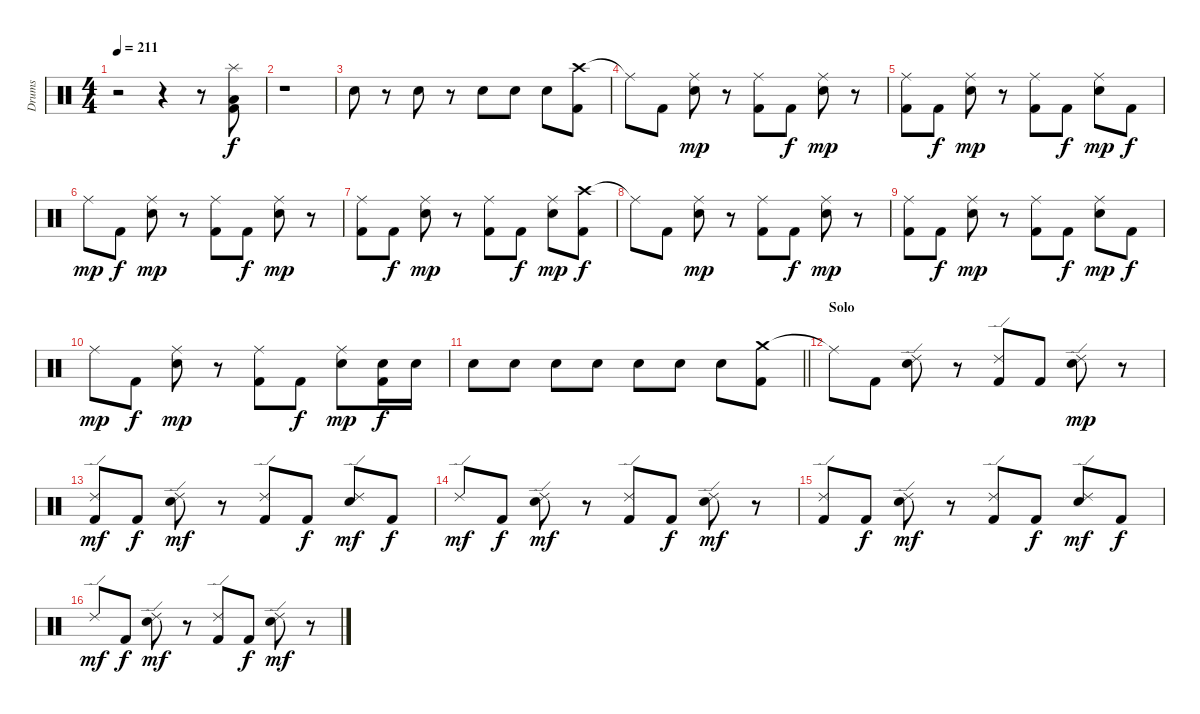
\track ("Drums" "Drums") {instrument percussion}
\staff {score}
\articulation defaults
\ts (4 4)
\tempo 211
\clef neutral
\ks c
r.2{dy mf} r.4 r.8 ("Splash (hit)" "Low Tom (hit)" "Kick (hit) 2").8{dy f} |
r.1 |
"Snare (hit) 2".8 r.8 "Snare (hit) 2".8 r.8 "Snare (hit) 2".8 "Snare (hit) 2".8 "Snare (hit) 2".8 ("Crash high (hit)" "Kick (hit) 2").8 |
"Ride (middle)"{t}.8 "Kick (hit) 2".8 ("Ride (middle)" "Snare (hit) 2").8{dy mp} r.8 ("Ride (middle)" "Kick (hit) 2").8 "Kick (hit) 2".8{dy f} ("Ride (middle)" "Snare (hit) 2").8{dy mp} r.8 |
("Ride (middle)" "Kick (hit) 2").8 "Kick (hit) 2".8{dy f} ("Ride (middle)" "Snare (hit) 2").8{dy mp} r.8 ("Ride (middle)" "Kick (hit) 2").8 "Kick (hit) 2".8{dy f} ("Ride (middle)" "Snare (hit) 2").8{dy mp} "Kick (hit) 2".8{dy f} |
"Ride (middle)".8{dy mp} "Kick (hit) 2".8{dy f} ("Ride (middle)" "Snare (hit) 2").8{dy mp} r.8 ("Ride (middle)" "Kick (hit) 2").8 "Kick (hit) 2".8{dy f} ("Ride (middle)" "Snare (hit) 2").8{dy mp} r.8 |
("Ride (middle)" "Kick (hit) 2").8 "Kick (hit) 2".8{dy f} ("Ride (middle)" "Snare (hit) 2").8{dy mp} r.8 ("Ride (middle)" "Kick (hit) 2").8 "Kick (hit) 2".8{dy f} ("Ride (middle)" "Snare (hit) 2").8{dy mp} ("Crash high (hit)" "Kick (hit) 2").8{dy f} |
"Ride (middle)"{t}.8 "Kick (hit) 2".8 ("Ride (middle)" "Snare (hit) 2").8{dy mp} r.8 ("Ride (middle)" "Kick (hit) 2").8 "Kick (hit) 2".8{dy f} ("Ride (middle)" "Snare (hit) 2").8{dy mp} r.8 |
("Ride (middle)" "Kick (hit) 2").8 "Kick (hit) 2".8{dy f} ("Ride (middle)" "Snare (hit) 2").8{dy mp} r.8 ("Ride (middle)" "Kick (hit) 2").8 "Kick (hit) 2".8{dy f} ("Ride (middle)" "Snare (hit) 2").8{dy mp} "Kick (hit) 2".8{dy f} |
"Ride (middle)".8{dy mp} "Kick (hit) 2".8{dy f} ("Ride (middle)" "Snare (hit) 2").8{dy mp} r.8 ("Ride (middle)" "Kick (hit) 2").8 "Kick (hit) 2".8{dy f} ("Ride (middle)" "Snare (hit) 2").8{dy mp} ("Snare (hit) 2" "Kick (hit) 2").16{dy f} "Snare (hit) 2".16 |
\barLineRight lightlight "Snare (hit) 2".8 "Snare (hit) 2".8 "Snare (hit) 2".8 "Snare (hit) 2".8 "Snare (hit) 2".8 "Snare (hit) 2".8 "Snare (hit) 2".8
("Crash medium (hit)" "Kick (hit) 2").8 |
\section ("" "Solo")
"Ride (middle)"{t}.8 "Kick (hit) 2".8 ("Ride (edge) 2" "Snare (hit) 2").8 r.8 ("Ride (edge) 2" "Kick (hit) 2").8 "Kick (hit) 2".8 ("Ride (edge) 2" "Snare (hit) 2").8{dy mp} r.8 |
("Ride (edge) 2" "Kick (hit) 2").8{dy mf} "Kick (hit) 2".8{dy f} ("Ride (edge) 2" "Snare (hit) 2").8{dy mf} r.8 ("Ride (edge) 2" "Kick (hit) 2").8 "Kick (hit) 2".8{dy f} ("Ride (edge) 2" "Snare (hit) 2").8{dy mf} "Kick (hit) 2".8{dy f} |
"Ride (edge) 2".8{dy mf} "Kick (hit) 2".8{dy f} ("Ride (edge) 2" "Snare (hit) 2").8{dy mf} r.8 ("Ride (edge) 2" "Kick (hit) 2").8 "Kick (hit) 2".8{dy f} ("Ride (edge) 2" "Snare (hit) 2").8{dy mf} r.8 |
("Ride (edge) 2" "Kick (hit) 2").8 "Kick (hit) 2".8{dy f} ("Ride (edge) 2" "Snare (hit) 2").8{dy mf} r.8 ("Ride (edge) 2" "Kick (hit) 2").8 "Kick (hit) 2".8{dy f} ("Ride (edge) 2" "Snare (hit) 2").8{dy mf} "Kick (hit) 2".8{dy f} |
"Ride (edge) 2".8{dy mf} "Kick (hit) 2".8{dy f} ("Ride (edge) 2" "Snare (hit) 2").8{dy mf} r.8 ("Ride (edge) 2" "Kick (hit) 2").8 "Kick (hit) 2".8{dy f} ("Ride (edge) 2" "Snare (hit) 2").8{dy mf} r.8
